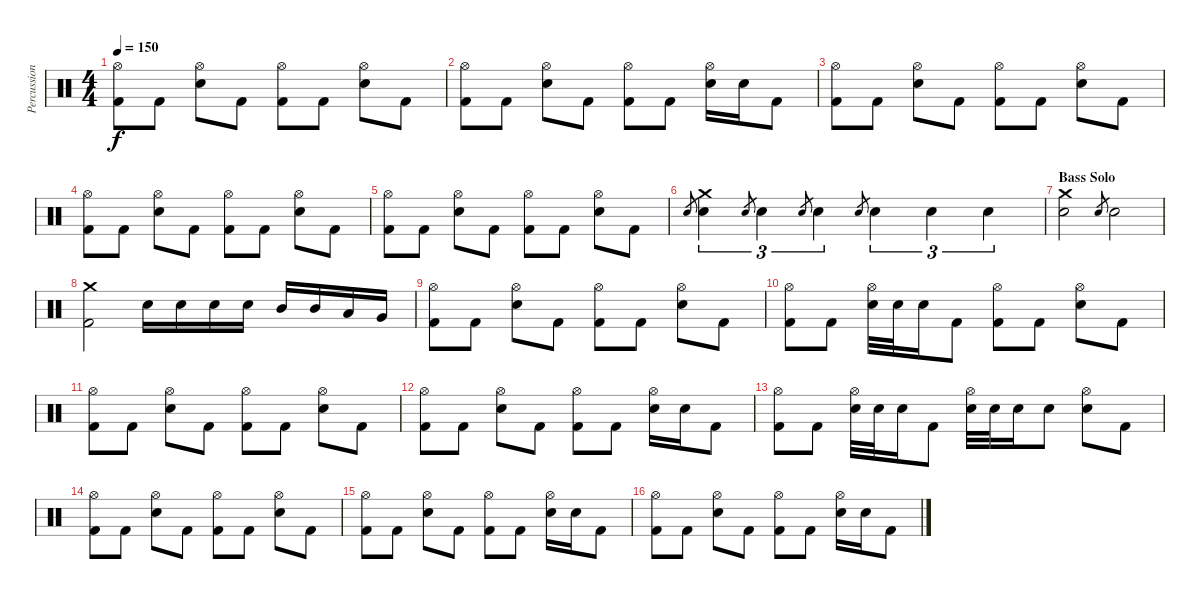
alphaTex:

\track ("Percussion" "Percussion") {instrument percussion}
\staff {score}
\articulation defaults
\ts (4 4)
\tempo 150
\clef neutral
\ks c
("Kick (hit) 2" "Hi-Hat (open)").8{dy f} "Kick (hit) 2".8 ("Electric Snare (hit)" "Hi-Hat (open)").8 "Kick (hit) 2".8 ("Kick (hit) 2" "Hi-Hat (open)").8 "Kick (hit) 2".8 ("Electric Snare (hit)" "Hi-Hat (open)").8 "Kick (hit) 2".8 |
("Kick (hit) 2" "Hi-Hat (open)").8 "Kick (hit) 2".8 ("Electric Snare (hit)" "Hi-Hat (open)").8 "Kick (hit) 2".8 ("Kick (hit) 2" "Hi-Hat (open)").8 "Kick (hit) 2".8 ("Electric Snare (hit)" "Hi-Hat (open)").16 "Electric Snare (hit)".16 "Kick (hit) 2".8 |
("Kick (hit) 2" "Hi-Hat (open)").8 "Kick (hit) 2".8 ("Electric Snare (hit)" "Hi-Hat (open)").8 "Kick (hit) 2".8 ("Kick (hit) 2" "Hi-Hat (open)").8 "Kick (hit) 2".8 ("Electric Snare (hit)" "Hi-Hat (open)").8 "Kick (hit) 2".8 |
("Kick (hit) 2" "Hi-Hat (open)").8 "Kick (hit) 2".8 ("Electric Snare (hit)" "Hi-Hat (open)").8 "Kick (hit) 2".8 ("Kick (hit) 2" "Hi-Hat (open)").8 "Kick (hit) 2".8 ("Electric Snare (hit)" "Hi-Hat (open)").8 "Kick (hit) 2".8 |
("Kick (hit) 2" "Hi-Hat (open)").8 "Kick (hit) 2".8 ("Electric Snare (hit)" "Hi-Hat (open)").8 "Kick (hit) 2".8 ("Kick (hit) 2" "Hi-Hat (open)").8 "Kick (hit) 2".8 ("Electric Snare (hit)" "Hi-Hat (open)").8 "Kick (hit) 2".8 |
"Electric Snare (hit)".8{gr} ("Electric Snare (hit)" "Crash medium (hit)").4{tu (3 2)} "Electric Snare (hit)".8{gr} "Electric Snare (hit)".4{tu (3 2)} "Electric Snare (hit)".8{gr} "Electric Snare (hit)".4{tu (3 2)} "Electric Snare (hit)".8{gr} "Electric Snare (hit)".4{tu (3 2)} "Electric Snare (hit)".4{tu (3 2)} "Electric Snare (hit)".4{tu (3 2)} |
\section ("" "Bass Solo")
("Crash medium (hit)" "Electric Snare (hit)").2 "Electric Snare (hit)".8{gr} "Electric Snare (hit)".2 |
("Crash medium (hit)" "Kick (hit) 2").2 "Electric Snare (hit)".16 "Electric Snare (hit)".16 "Electric Snare (hit)".16 "Electric Snare (hit)".16 "Mid Tom (hit)".16 "Mid Tom (hit)".16 "Low Tom (hit)".16 "Very Low Tom (hit)".16 |
("Kick (hit) 2" "Hi-Hat (open)").8 "Kick (hit) 2".8 ("Electric Snare (hit)" "Hi-Hat (open)").8 "Kick (hit) 2".8 ("Kick (hit) 2" "Hi-Hat (open)").8 "Kick (hit) 2".8 ("Electric Snare (hit)" "Hi-Hat (open)").8 "Kick (hit) 2".8 |
("Kick (hit) 2" "Hi-Hat (open)").8 "Kick (hit) 2".8 ("Electric Snare (hit)" "Hi-Hat (open)").32 "Electric Snare (hit)".32 "Electric Snare (hit)".16 "Kick (hit) 2".8 ("Kick (hit) 2" "Hi-Hat (open)").8 "Kick (hit) 2".8 ("Electric Snare (hit)" "Hi-Hat (open)").8 "Kick (hit) 2".8 |
("Kick (hit) 2" "Hi-Hat (open)").8 "Kick (hit) 2".8 ("Electric Snare (hit)" "Hi-Hat (open)").8 "Kick (hit) 2".8 ("Kick (hit) 2" "Hi-Hat (open)").8 "Kick (hit) 2".8 ("Electric Snare (hit)" "Hi-Hat (open)").8 "Kick (hit) 2".8 |
("Kick (hit) 2" "Hi-Hat (open)").8 "Kick (hit) 2".8 ("Electric Snare (hit)" "Hi-Hat (open)").8 "Kick (hit) 2".8 ("Kick (hit) 2" "Hi-Hat (open)").8 "Kick (hit) 2".8 ("Electric Snare (hit)" "Hi-Hat (open)").16 "Electric Snare (hit)".16 "Kick (hit) 2".8 |
("Kick (hit) 2" "Hi-Hat (open)").8 "Kick (hit) 2".8 ("Electric Snare (hit)" "Hi-Hat (open)").32 "Electric Snare (hit)".32 "Electric Snare (hit)".16 "Kick (hit) 2".8 ("Electric Snare (hit)" "Hi-Hat (open)").32 "Electric Snare (hit)".32 "Electric Snare (hit)".16 "Electric Snare (hit)".8 ("Electric Snare (hit)" "Hi-Hat (open)").8 "Kick (hit) 2".8 |
("Kick (hit) 2" "Hi-Hat (open)").8 "Kick (hit) 2".8 ("Electric Snare (hit)" "Hi-Hat (open)").8 "Kick (hit) 2".8 ("Kick (hit) 2" "Hi-Hat (open)").8 "Kick (hit) 2".8 ("Electric Snare (hit)" "Hi-Hat (open)").8 "Kick (hit) 2".8 |
("Kick (hit) 2" "Hi-Hat (open)").8 "Kick (hit) 2".8 ("Electric Snare (hit)" "Hi-Hat (open)").8 "Kick (hit) 2".8 ("Kick (hit) 2" "Hi-Hat (open)").8 "Kick (hit) 2".8 ("Electric Snare (hit)" "Hi-Hat (open)").16 "Electric Snare (hit)".16 "Kick (hit) 2".8 |
("Kick (hit) 2" "Hi-Hat (open)").8 "Kick (hit) 2".8 ("Electric Snare (hit)" "Hi-Hat (open)").8 "Kick (hit) 2".8 ("Kick (hit) 2" "Hi-Hat (open)").8 "Kick (hit) 2".8 ("Electric Snare (hit)" "Hi-Hat (open)").16 "Electric Snare (hit)".16 "Kick (hit) 2".8
